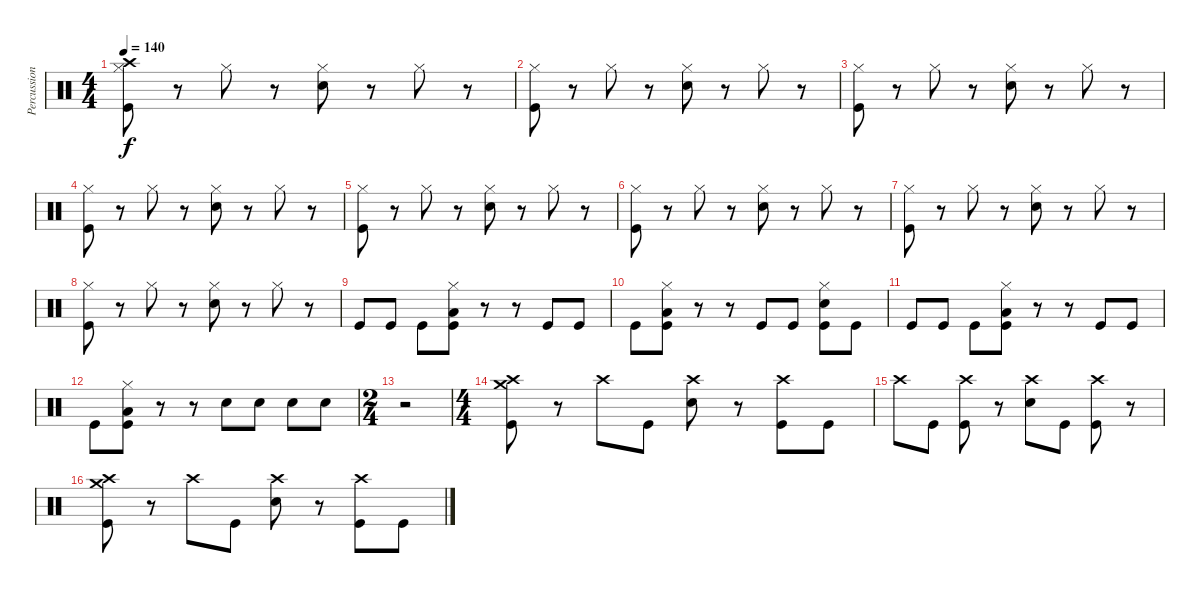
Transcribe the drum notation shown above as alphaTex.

\track ("Percussion" "Percussion") {instrument percussion}
\staff {score}
\articulation defaults
\ts (4 4)
\tempo 140
\clef neutral
\ks c
("Crash high (hit)" "Hi-Hat (closed)" "Kick (hit)").8{dy f} r.8 "Hi-Hat (closed)".8 r.8 ("Hi-Hat (closed)" "Snare (hit) 2").8 r.8 "Hi-Hat (closed)".8 r.8 |
("Hi-Hat (closed)" "Kick (hit)").8 r.8 "Hi-Hat (closed)".8 r.8 ("Hi-Hat (closed)" "Snare (hit) 2").8 r.8 "Hi-Hat (closed)".8 r.8 |
("Hi-Hat (closed)" "Kick (hit)").8 r.8 "Hi-Hat (closed)".8 r.8 ("Hi-Hat (closed)" "Snare (hit) 2").8 r.8 "Hi-Hat (closed)".8 r.8 |
("Hi-Hat (closed)" "Kick (hit)").8 r.8 "Hi-Hat (closed)".8 r.8 ("Hi-Hat (closed)" "Snare (hit) 2").8 r.8 "Hi-Hat (closed)".8 r.8 |
("Hi-Hat (closed)" "Kick (hit)").8 r.8 "Hi-Hat (closed)".8 r.8 ("Hi-Hat (closed)" "Snare (hit) 2").8 r.8 "Hi-Hat (closed)".8 r.8 |
("Hi-Hat (closed)" "Kick (hit)").8 r.8 "Hi-Hat (closed)".8 r.8 ("Hi-Hat (closed)" "Snare (hit) 2").8 r.8 "Hi-Hat (closed)".8 r.8 |
("Hi-Hat (closed)" "Kick (hit)").8 r.8 "Hi-Hat (closed)".8 r.8 ("Hi-Hat (closed)" "Snare (hit) 2").8 r.8 "Hi-Hat (closed)".8 r.8 |
("Hi-Hat (closed)" "Kick (hit)").8 r.8 "Hi-Hat (closed)".8 r.8 ("Hi-Hat (closed)" "Snare (hit) 2").8 r.8 "Hi-Hat (closed)".8 r.8 |
"Kick (hit)".8 "Kick (hit)".8 "Kick (hit)".8 ("Hi-Hat (closed)" "Low Tom (hit)" "Kick (hit)").8 r.8 r.8 "Kick (hit)".8 "Kick (hit)".8 |
"Kick (hit)".8 ("Hi-Hat (closed)" "Low Tom (hit)" "Kick (hit)").8 r.8 r.8 "Kick (hit)".8 "Kick (hit)".8 ("Hi-Hat (closed)" "Snare (hit) 2" "Kick (hit)").8 "Kick (hit)".8 |
"Kick (hit)".8 "Kick (hit)".8 "Kick (hit)".8 ("Hi-Hat (closed)" "Low Tom (hit)" "Kick (hit)").8 r.8 r.8 "Kick (hit)".8 "Kick (hit)".8 |
"Kick (hit)".8 ("Hi-Hat (closed)" "Low Tom (hit)" "Kick (hit)").8 r.8 r.8 "Snare (hit) 2".8 "Snare (hit) 2".8 "Snare (hit) 2".8 "Snare (hit) 2".8 |
\ts (2 4)
r.2 |
\ts (4 4)
("Crash medium (hit)" "Crash high (hit)" "Kick (hit)").8 r.8 "Crash high (hit)".8 "Kick (hit)".8 ("Crash high (hit)" "Snare (hit) 2").8 r.8 ("Crash high (hit)" "Kick (hit)").8 "Kick (hit)".8 |
"Crash high (hit)".8 "Kick (hit)".8 ("Crash high (hit)" "Kick (hit)").8 r.8 ("Crash high (hit)" "Snare (hit) 2").8 "Kick (hit)".8 ("Crash high (hit)" "Kick (hit)").8 r.8 |
("Crash medium (hit)" "Crash high (hit)" "Kick (hit)").8 r.8 "Crash high (hit)".8 "Kick (hit)".8 ("Crash high (hit)" "Snare (hit) 2").8 r.8 ("Crash high (hit)" "Kick (hit)").8 "Kick (hit)".8
